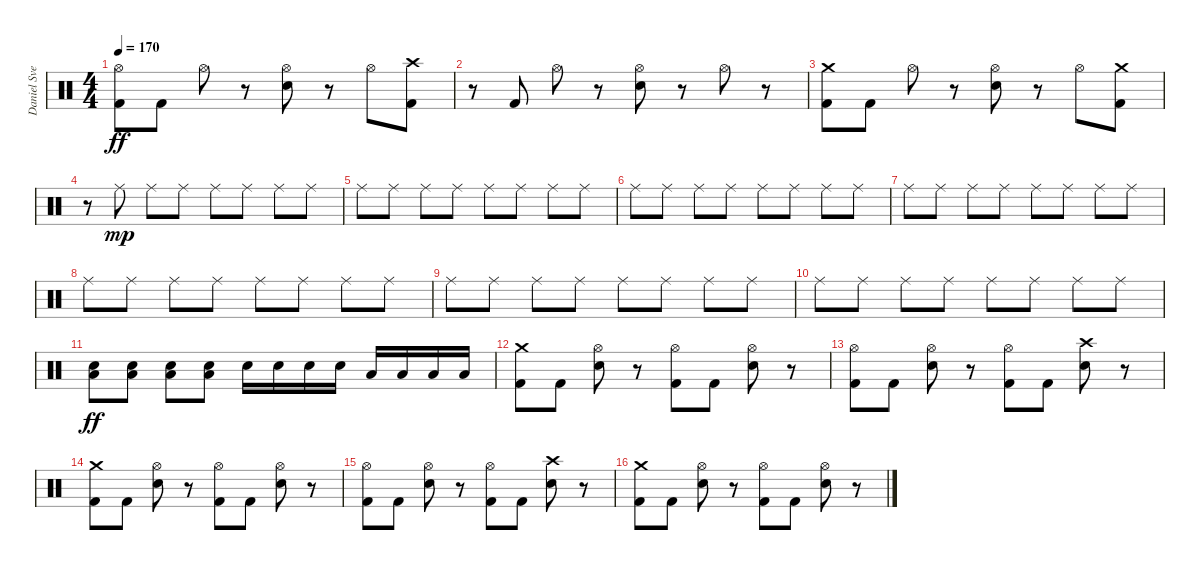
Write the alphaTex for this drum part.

\track ("Daniel Svensson" "Daniel Sve") {instrument percussion}
\staff {score}
\articulation defaults
\ts (4 4)
\tempo 170
\clef neutral
\ks c
("Hi-Hat (open)" "Kick (hit) 2").8{dy ff} "Kick (hit) 2".8 "Hi-Hat (open)".8 r.8 ("Hi-Hat (open)" "Electric Snare (hit)").8 r.8 "Hi-Hat (open)".8 ("Crash high (hit)" "Kick (hit) 2").8 |
r.8 "Kick (hit) 2".8 "Hi-Hat (open)".8 r.8 ("Hi-Hat (open)" "Electric Snare (hit)").8 r.8 "Hi-Hat (open)".8 r.8 |
("Crash medium (hit)" "Kick (hit) 2").8 "Kick (hit) 2".8 "Hi-Hat (open)".8 r.8 ("Hi-Hat (open)" "Electric Snare (hit)").8 r.8 "Hi-Hat (open)".8 ("Crash medium (hit)" "Kick (hit) 2").8 |
r.8 "Ride (middle)".8{dy mp} "Ride (middle)".8 "Ride (middle)".8 "Ride (middle)".8 "Ride (middle)".8 "Ride (middle)".8 "Ride (middle)".8 |
"Ride (middle)".8 "Ride (middle)".8 "Ride (middle)".8 "Ride (middle)".8 "Ride (middle)".8 "Ride (middle)".8 "Ride (middle)".8 "Ride (middle)".8 |
"Ride (middle)".8 "Ride (middle)".8 "Ride (middle)".8 "Ride (middle)".8 "Ride (middle)".8 "Ride (middle)".8 "Ride (middle)".8 "Ride (middle)".8 |
"Ride (middle)".8 "Ride (middle)".8 "Ride (middle)".8 "Ride (middle)".8 "Ride (middle)".8 "Ride (middle)".8 "Ride (middle)".8 "Ride (middle)".8 |
"Ride (middle)".8 "Ride (middle)".8 "Ride (middle)".8 "Ride (middle)".8 "Ride (middle)".8 "Ride (middle)".8 "Ride (middle)".8 "Ride (middle)".8 |
"Ride (middle)".8 "Ride (middle)".8 "Ride (middle)".8 "Ride (middle)".8 "Ride (middle)".8 "Ride (middle)".8 "Ride (middle)".8 "Ride (middle)".8 |
"Ride (middle)".8 "Ride (middle)".8 "Ride (middle)".8 "Ride (middle)".8 "Ride (middle)".8 "Ride (middle)".8 "Ride (middle)".8 "Ride (middle)".8 |
("Low Floor Tom (hit)" "Electric Snare (hit)").8{dy ff} ("Low Floor Tom (hit)" "Electric Snare (hit)").8 ("Low Floor Tom (hit)" "Electric Snare (hit)").8 ("Low Floor Tom (hit)" "Electric Snare (hit)").8 "Electric Snare (hit)".16 "Electric Snare (hit)".16 "Electric Snare (hit)".16 "Electric Snare (hit)".16 "Low Floor Tom (hit)".16 "Low Floor Tom (hit)".16 "Low Floor Tom (hit)".16 "Low Floor Tom (hit)".16 |
("Crash medium (hit)" "Kick (hit) 2").8 "Kick (hit) 2".8 ("Hi-Hat (open)" "Electric Snare (hit)").8 r.8 ("Hi-Hat (open)" "Kick (hit) 2").8 "Kick (hit) 2".8 ("Hi-Hat (open)" "Electric Snare (hit)").8 r.8 |
("Hi-Hat (open)" "Kick (hit) 2").8 "Kick (hit) 2".8 ("Hi-Hat (open)" "Electric Snare (hit)").8 r.8 ("Hi-Hat (open)" "Kick (hit) 2").8 "Kick (hit) 2".8 ("Crash high (hit)" "Electric Snare (hit)").8 r.8 |
("Crash medium (hit)" "Kick (hit) 2").8 "Kick (hit) 2".8 ("Hi-Hat (open)" "Electric Snare (hit)").8 r.8 ("Hi-Hat (open)" "Kick (hit) 2").8 "Kick (hit) 2".8 ("Hi-Hat (open)" "Electric Snare (hit)").8 r.8 |
("Hi-Hat (open)" "Kick (hit) 2").8 "Kick (hit) 2".8 ("Hi-Hat (open)" "Electric Snare (hit)").8 r.8 ("Hi-Hat (open)" "Kick (hit) 2").8 "Kick (hit) 2".8 ("Crash high (hit)" "Electric Snare (hit)").8 r.8 |
("Crash medium (hit)" "Kick (hit) 2").8 "Kick (hit) 2".8 ("Hi-Hat (open)" "Electric Snare (hit)").8 r.8 ("Hi-Hat (open)" "Kick (hit) 2").8 "Kick (hit) 2".8 ("Hi-Hat (open)" "Electric Snare (hit)").8 r.8
